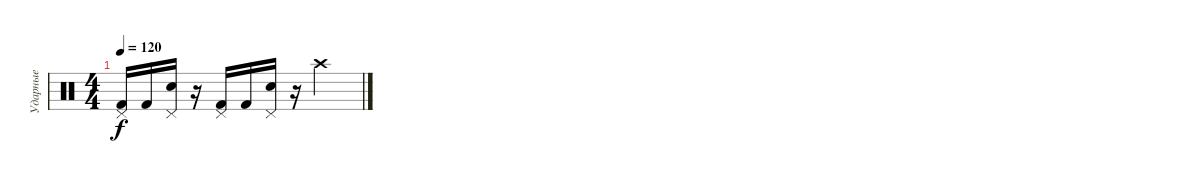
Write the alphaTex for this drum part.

\track ("Ударные" "Ударные") {instrument percussion}
\staff {score}
\articulation defaults
\ts (4 4)
\tempo 120
\clef neutral
\ks c
("Kick (hit) 2" "Pedal Hi-Hat (hit)").16{dy f} "Kick (hit) 2".16 ("Snare (hit) 2" "Pedal Hi-Hat (hit)").16 r.16 ("Kick (hit) 2" "Pedal Hi-Hat (hit)").16 "Kick (hit) 2".16 ("Snare (hit) 2" "Pedal Hi-Hat (hit)").16 r.16 "Crash high (hit)".2
